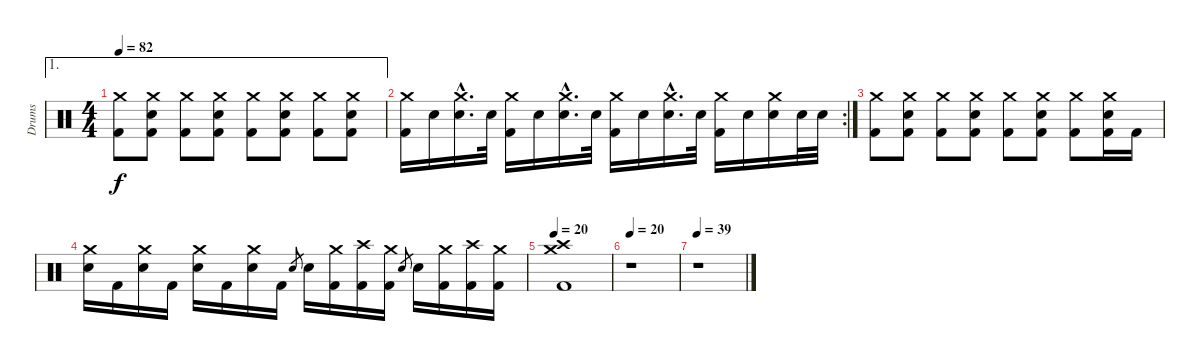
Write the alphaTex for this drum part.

\track ("Drums" "Drums") {instrument percussion}
\staff {score}
\articulation defaults
\ae 1
\ts (4 4)
\tempo 82
\clef neutral
\ks c
("Crash medium (hit)" "Kick (hit) 2").8{dy f} ("Crash medium (hit)" "Snare (hit) 2" "Kick (hit) 2").8 ("Crash medium (hit)" "Kick (hit) 2").8 ("Crash medium (hit)" "Snare (hit) 2" "Kick (hit) 2").8 ("Crash medium (hit)" "Kick (hit) 2").8 ("Crash medium (hit)" "Snare (hit) 2" "Kick (hit) 2").8 ("Crash medium (hit)" "Kick (hit) 2").8 ("Crash medium (hit)" "Snare (hit) 2" "Kick (hit) 2").8 |
\rc 2
("Crash medium (hit)" "Kick (hit) 2").16 "Snare (hit) 2".16 ("Crash medium (hit)"{hac} "Snare (hit) 2"{hac}).16{d} "Snare (hit) 2".32 ("Crash medium (hit)" "Kick (hit) 2").16 "Snare (hit) 2".16 ("Crash medium (hit)"{hac} "Snare (hit) 2"{hac}).16{d} "Snare (hit) 2".32 ("Crash medium (hit)" "Kick (hit) 2").16 "Snare (hit) 2".16 ("Crash medium (hit)"{hac} "Snare (hit) 2"{hac}).16{d} "Snare (hit) 2".32 ("Crash medium (hit)" "Kick (hit) 2").16 "Snare (hit) 2".16 ("Crash medium (hit)" "Snare (hit) 2").16 "Snare (hit) 2".32 "Snare (hit) 2".32 |
("Crash medium (hit)" "Kick (hit) 2").8 ("Crash medium (hit)" "Snare (hit) 2" "Kick (hit) 2").8 ("Crash medium (hit)" "Kick (hit) 2").8 ("Crash medium (hit)" "Snare (hit) 2" "Kick (hit) 2").8 ("Crash medium (hit)" "Kick (hit) 2").8 ("Crash medium (hit)" "Snare (hit) 2" "Kick (hit) 2").8 ("Crash medium (hit)" "Kick (hit) 2").8 ("Crash medium (hit)" "Snare (hit) 2" "Kick (hit) 2").16 "Kick (hit) 2".16 |
("Crash medium (hit)" "Snare (hit) 2").16 "Kick (hit) 2".16 ("Crash medium (hit)" "Snare (hit) 2").16 "Kick (hit) 2".16 ("Crash medium (hit)" "Snare (hit) 2").16 "Kick (hit) 2".16 ("Crash medium (hit)" "Snare (hit) 2").16 "Kick (hit) 2".16 "Snare (hit) 2".8{gr} "Snare (hit) 2".16 ("Crash medium (hit)" "Kick (hit) 2").16 ("Crash high (hit)" "Kick (hit) 2").16 ("Crash medium (hit)" "Kick (hit) 2").16 "Snare (hit) 2".8{gr} "Snare (hit) 2".16 ("Crash medium (hit)" "Kick (hit) 2").16 ("Crash high (hit)" "Kick (hit) 2").16 ("Crash medium (hit)" "Kick (hit) 2").16 |
\tempo 20
("Crash high (hit)" "Crash medium (hit)" "Kick (hit) 2").1 |
\tempo 20
r.1 |
\tempo 39
r.1
